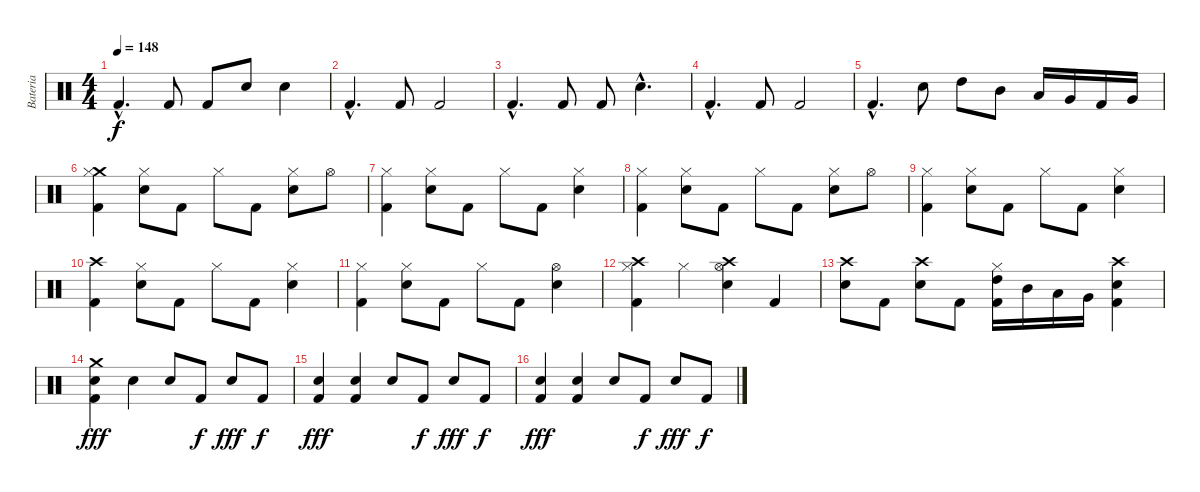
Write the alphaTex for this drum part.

\track ("Bateria" "Bateria") {instrument percussion}
\staff {score}
\articulation defaults
\ts (4 4)
\tempo 148
\clef neutral
\ks c "Kick (hit) 2"{hac}.4{d dy f} "Kick (hit) 2".8 "Kick (hit) 2".8 "Electric Snare (hit)".8 "Electric Snare (hit)".4
|
"Kick (hit) 2"{hac}.4{d} "Kick (hit) 2".8 "Kick (hit) 2".2 |
"Kick (hit) 2"{hac}.4{d} "Kick (hit) 2".8 "Kick (hit) 2".8 "Electric Snare (hit)"{hac}.4{d} |
"Kick (hit) 2"{hac}.4{d} "Kick (hit) 2".8 "Kick (hit) 2".2 |
"Kick (hit) 2"{hac}.4{d} "Electric Snare (hit)".8 "High Tom (hit)".8 "Mid Tom (hit)".8 "Low Tom (hit)".16 "Very Low Tom (hit)".16 "Kick (hit) 2".16 "Very Low Tom (hit)".16 |
("Kick (hit) 2" "Crash medium (hit)" "Hi-Hat (closed)").4 ("Electric Snare (hit)" "Hi-Hat (closed)").8 "Kick (hit) 2".8 "Hi-Hat (closed)".8 "Kick (hit) 2".8 ("Electric Snare (hit)" "Hi-Hat (closed)").8 "Hi-Hat (open)".8 |
("Kick (hit) 2" "Hi-Hat (closed)").4 ("Electric Snare (hit)" "Hi-Hat (closed)").8 "Kick (hit) 2".8 "Hi-Hat (closed)".8 "Kick (hit) 2".8 ("Electric Snare (hit)" "Hi-Hat (closed)").4 |
("Kick (hit) 2" "Hi-Hat (closed)").4 ("Electric Snare (hit)" "Hi-Hat (closed)").8 "Kick (hit) 2".8 "Hi-Hat (closed)".8 "Kick (hit) 2".8 ("Electric Snare (hit)" "Hi-Hat (closed)").8 "Hi-Hat (open)".8 |
("Hi-Hat (closed)" "Kick (hit) 2").4 ("Hi-Hat (closed)" "Electric Snare (hit)").8 "Kick (hit) 2".8 "Hi-Hat (closed)".8 "Kick (hit) 2".8 ("Hi-Hat (closed)" "Electric Snare (hit)").4 |
("Kick (hit) 2" "Crash high (hit)").4 ("Hi-Hat (closed)" "Electric Snare (hit)").8 "Kick (hit) 2".8 "Hi-Hat (closed)".8 "Kick (hit) 2".8 ("Electric Snare (hit)" "Hi-Hat (closed)").4 |
("Hi-Hat (closed)" "Kick (hit) 2").4 ("Hi-Hat (closed)" "Electric Snare (hit)").8 "Kick (hit) 2".8 "Hi-Hat (closed)".8 "Kick (hit) 2".8 ("Hi-Hat (open)" "Electric Snare (hit)").4 |
("Kick (hit) 2" "Crash high (hit)" "Hi-Hat (closed)").4 "Hi-Hat (closed)".4 ("Hi-Hat (open)" "Electric Snare (hit)" "Crash high (hit)").4 "Kick (hit) 2".4 |
("Electric Snare (hit)" "Crash high (hit)").8 "Kick (hit) 2".8 ("Electric Snare (hit)" "Crash high (hit)").8 "Kick (hit) 2".8 ("Hi-Hat (closed)" "Kick (hit) 2" "High Tom (hit)").16 "Mid Tom (hit)".16 "Low Tom (hit)".16 "Very Low Tom (hit)".16 ("Kick (hit) 2" "Electric Snare (hit)" "Crash high (hit)").4 |
("Crash medium (hit)" "Electric Snare (hit)" "Kick (hit) 2").4{dy fff} "Electric Snare (hit)".4 "Electric Snare (hit)".8 "Kick (hit) 2".8{dy f} "Electric Snare (hit)".8{dy fff} "Kick (hit) 2".8{dy f} |
("Kick (hit) 2" "Electric Snare (hit)").4{dy fff} ("Electric Snare (hit)" "Kick (hit) 2").4 "Electric Snare (hit)".8 "Kick (hit) 2".8{dy f} "Electric Snare (hit)".8{dy fff} "Kick (hit) 2".8{dy f} |
("Electric Snare (hit)" "Kick (hit) 2").4{dy fff} ("Electric Snare (hit)" "Kick (hit) 2").4 "Electric Snare (hit)".8 "Kick (hit) 2".8{dy f} "Electric Snare (hit)".8{dy fff} "Kick (hit) 2".8{dy f}
